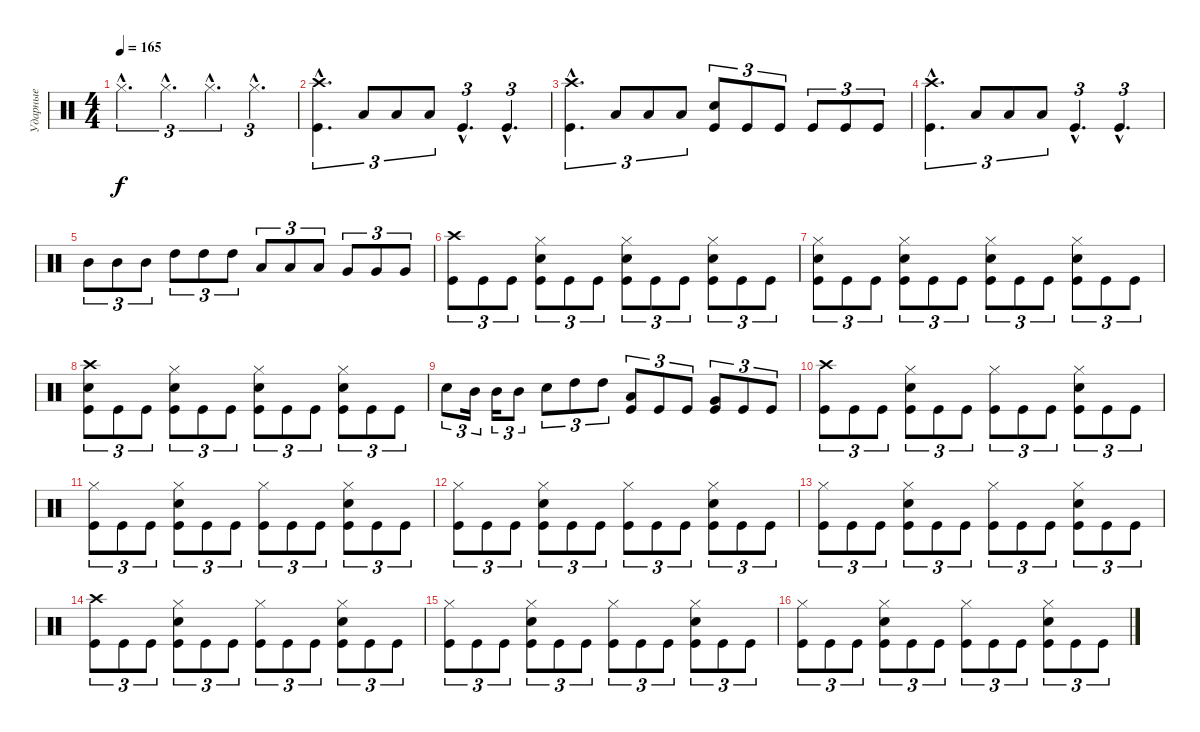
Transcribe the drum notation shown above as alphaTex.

\track ("Ударные" "Ударные") {instrument percussion}
\staff {score}
\articulation defaults
\ts (4 4)
\tempo 165
\clef neutral
\ks c "Hi-Hat (closed)"{hac}.4{d tu (3 2) dy f} "Hi-Hat (closed)"{hac}.4{d tu (3 2)} "Hi-Hat (closed)"{hac}.4{d tu (3 2)} "Hi-Hat (closed)"{hac}.4{d tu (3 2)}
|
("Crash high (hit)"{hac} "Kick (hit)"{hac}).4{d tu (3 2)} "Low Tom (hit)".8{tu (3 2)} "Low Tom (hit)".8{tu (3 2)} "Low Tom (hit)".8{tu (3 2)} "Kick (hit)"{hac}.4{d tu (3 2)} "Kick (hit)"{hac}.4{d tu (3 2)} |
("Crash high (hit)"{hac} "Kick (hit)"{hac}).4{d tu (3 2)} "Low Tom (hit)".8{tu (3 2)} "Low Tom (hit)".8{tu (3 2)} "Low Tom (hit)".8{tu (3 2)} ("Electric Snare (hit)" "Kick (hit)").8{tu (3 2)} "Kick (hit)".8{tu (3 2)} "Kick (hit)".8{tu (3 2)} "Kick (hit)".8{tu (3 2)} "Kick (hit)".8{tu (3 2)} "Kick (hit)".8{tu (3 2)} |
("Crash high (hit)"{hac} "Kick (hit)"{hac}).4{d tu (3 2)} "Low Tom (hit)".8{tu (3 2)} "Low Tom (hit)".8{tu (3 2)} "Low Tom (hit)".8{tu (3 2)} "Kick (hit)"{hac}.4{d tu (3 2)} "Kick (hit)"{hac}.4{d tu (3 2)} |
"Mid Tom (hit)".8{tu (3 2)} "Mid Tom (hit)".8{tu (3 2)} "Mid Tom (hit)".8{tu (3 2)} "High Tom (hit)".8{tu (3 2)} "High Tom (hit)".8{tu (3 2)} "High Tom (hit)".8{tu (3 2)} "Low Tom (hit)".8{tu (3 2)} "Low Tom (hit)".8{tu (3 2)} "Low Tom (hit)".8{tu (3 2)} "Very Low Tom (hit)".8{tu (3 2)} "Very Low Tom (hit)".8{tu (3 2)} "Very Low Tom (hit)".8{tu (3 2)} |
("Crash high (hit)" "Kick (hit)").8{tu (3 2)} "Kick (hit)".8{tu (3 2)} "Kick (hit)".8{tu (3 2)} ("Hi-Hat (closed)" "Electric Snare (hit)" "Kick (hit)").8{tu (3 2)} "Kick (hit)".8{tu (3 2)} "Kick (hit)".8{tu (3 2)} ("Hi-Hat (closed)" "Electric Snare (hit)" "Kick (hit)").8{tu (3 2)} "Kick (hit)".8{tu (3 2)} "Kick (hit)".8{tu (3 2)} ("Hi-Hat (closed)" "Electric Snare (hit)" "Kick (hit)").8{tu (3 2)} "Kick (hit)".8{tu (3 2)} "Kick (hit)".8{tu (3 2)} |
("Hi-Hat (closed)" "Electric Snare (hit)" "Kick (hit)").8{tu (3 2)} "Kick (hit)".8{tu (3 2)} "Kick (hit)".8{tu (3 2)} ("Hi-Hat (closed)" "Electric Snare (hit)" "Kick (hit)").8{tu (3 2)} "Kick (hit)".8{tu (3 2)} "Kick (hit)".8{tu (3 2)} ("Hi-Hat (closed)" "Electric Snare (hit)" "Kick (hit)").8{tu (3 2)} "Kick (hit)".8{tu (3 2)} "Kick (hit)".8{tu (3 2)} ("Hi-Hat (closed)" "Electric Snare (hit)" "Kick (hit)").8{tu (3 2)} "Kick (hit)".8{tu (3 2)} "Kick (hit)".8{tu (3 2)} |
("Crash high (hit)" "Electric Snare (hit)" "Kick (hit)").8{tu (3 2)} "Kick (hit)".8{tu (3 2)} "Kick (hit)".8{tu (3 2)} ("Hi-Hat (closed)" "Electric Snare (hit)" "Kick (hit)").8{tu (3 2)} "Kick (hit)".8{tu (3 2)} "Kick (hit)".8{tu (3 2)} ("Hi-Hat (closed)" "Electric Snare (hit)" "Kick (hit)").8{tu (3 2)} "Kick (hit)".8{tu (3 2)} "Kick (hit)".8{tu (3 2)} ("Hi-Hat (closed)" "Electric Snare (hit)" "Kick (hit)").8{tu (3 2)} "Kick (hit)".8{tu (3 2)} "Kick (hit)".8{tu (3 2)} |
"Electric Snare (hit)".8{tu (3 2)} "Mid Tom (hit)".16{tu (3 2)} "Mid Tom (hit)".16{tu (3 2)} "Mid Tom (hit)".8{tu (3 2)} "Electric Snare (hit)".8{tu (3 2)} "High Tom (hit)".8{tu (3 2)} "High Tom (hit)".8{tu (3 2)} ("Low Tom (hit)" "Kick (hit)").8{tu (3 2)} "Kick (hit)".8{tu (3 2)} "Kick (hit)".8{tu (3 2)} ("Very Low Tom (hit)" "Kick (hit)").8{tu (3 2)} "Kick (hit)".8{tu (3 2)} "Kick (hit)".8{tu (3 2)} |
("Crash high (hit)" "Kick (hit)").8{tu (3 2)} "Kick (hit)".8{tu (3 2)} "Kick (hit)".8{tu (3 2)} ("Hi-Hat (closed)" "Electric Snare (hit)" "Kick (hit)").8{tu (3 2)} "Kick (hit)".8{tu (3 2)} "Kick (hit)".8{tu (3 2)} ("Hi-Hat (closed)" "Kick (hit)").8{tu (3 2)} "Kick (hit)".8{tu (3 2)} "Kick (hit)".8{tu (3 2)} ("Hi-Hat (closed)" "Electric Snare (hit)" "Kick (hit)").8{tu (3 2)} "Kick (hit)".8{tu (3 2)} "Kick (hit)".8{tu (3 2)} |
("Hi-Hat (closed)" "Kick (hit)").8{tu (3 2)} "Kick (hit)".8{tu (3 2)} "Kick (hit)".8{tu (3 2)} ("Hi-Hat (closed)" "Electric Snare (hit)" "Kick (hit)").8{tu (3 2)} "Kick (hit)".8{tu (3 2)} "Kick (hit)".8{tu (3 2)} ("Hi-Hat (closed)" "Kick (hit)").8{tu (3 2)} "Kick (hit)".8{tu (3 2)} "Kick (hit)".8{tu (3 2)} ("Hi-Hat (closed)" "Electric Snare (hit)" "Kick (hit)").8{tu (3 2)} "Kick (hit)".8{tu (3 2)} "Kick (hit)".8{tu (3 2)} |
("Hi-Hat (closed)" "Kick (hit)").8{tu (3 2)} "Kick (hit)".8{tu (3 2)} "Kick (hit)".8{tu (3 2)} ("Hi-Hat (closed)" "Electric Snare (hit)" "Kick (hit)").8{tu (3 2)} "Kick (hit)".8{tu (3 2)} "Kick (hit)".8{tu (3 2)} ("Hi-Hat (closed)" "Kick (hit)").8{tu (3 2)} "Kick (hit)".8{tu (3 2)} "Kick (hit)".8{tu (3 2)} ("Hi-Hat (closed)" "Electric Snare (hit)" "Kick (hit)").8{tu (3 2)} "Kick (hit)".8{tu (3 2)} "Kick (hit)".8{tu (3 2)} |
("Hi-Hat (closed)" "Kick (hit)").8{tu (3 2)} "Kick (hit)".8{tu (3 2)} "Kick (hit)".8{tu (3 2)} ("Hi-Hat (closed)" "Electric Snare (hit)" "Kick (hit)").8{tu (3 2)} "Kick (hit)".8{tu (3 2)} "Kick (hit)".8{tu (3 2)} ("Hi-Hat (closed)" "Kick (hit)").8{tu (3 2)} "Kick (hit)".8{tu (3 2)} "Kick (hit)".8{tu (3 2)} ("Hi-Hat (closed)" "Electric Snare (hit)" "Kick (hit)").8{tu (3 2)} "Kick (hit)".8{tu (3 2)} "Kick (hit)".8{tu (3 2)} |
("Crash high (hit)" "Kick (hit)").8{tu (3 2)} "Kick (hit)".8{tu (3 2)} "Kick (hit)".8{tu (3 2)} ("Hi-Hat (closed)" "Electric Snare (hit)" "Kick (hit)").8{tu (3 2)} "Kick (hit)".8{tu (3 2)} "Kick (hit)".8{tu (3 2)} ("Hi-Hat (closed)" "Kick (hit)").8{tu (3 2)} "Kick (hit)".8{tu (3 2)} "Kick (hit)".8{tu (3 2)} ("Hi-Hat (closed)" "Electric Snare (hit)" "Kick (hit)").8{tu (3 2)} "Kick (hit)".8{tu (3 2)} "Kick (hit)".8{tu (3 2)} |
("Hi-Hat (closed)" "Kick (hit)").8{tu (3 2)} "Kick (hit)".8{tu (3 2)} "Kick (hit)".8{tu (3 2)} ("Hi-Hat (closed)" "Electric Snare (hit)" "Kick (hit)").8{tu (3 2)} "Kick (hit)".8{tu (3 2)} "Kick (hit)".8{tu (3 2)} ("Hi-Hat (closed)" "Kick (hit)").8{tu (3 2)} "Kick (hit)".8{tu (3 2)} "Kick (hit)".8{tu (3 2)} ("Hi-Hat (closed)" "Electric Snare (hit)" "Kick (hit)").8{tu (3 2)} "Kick (hit)".8{tu (3 2)} "Kick (hit)".8{tu (3 2)} |
("Hi-Hat (closed)" "Kick (hit)").8{tu (3 2)} "Kick (hit)".8{tu (3 2)} "Kick (hit)".8{tu (3 2)} ("Hi-Hat (closed)" "Electric Snare (hit)" "Kick (hit)").8{tu (3 2)} "Kick (hit)".8{tu (3 2)} "Kick (hit)".8{tu (3 2)} ("Hi-Hat (closed)" "Kick (hit)").8{tu (3 2)} "Kick (hit)".8{tu (3 2)} "Kick (hit)".8{tu (3 2)} ("Hi-Hat (closed)" "Electric Snare (hit)" "Kick (hit)").8{tu (3 2)} "Kick (hit)".8{tu (3 2)} "Kick (hit)".8{tu (3 2)}
